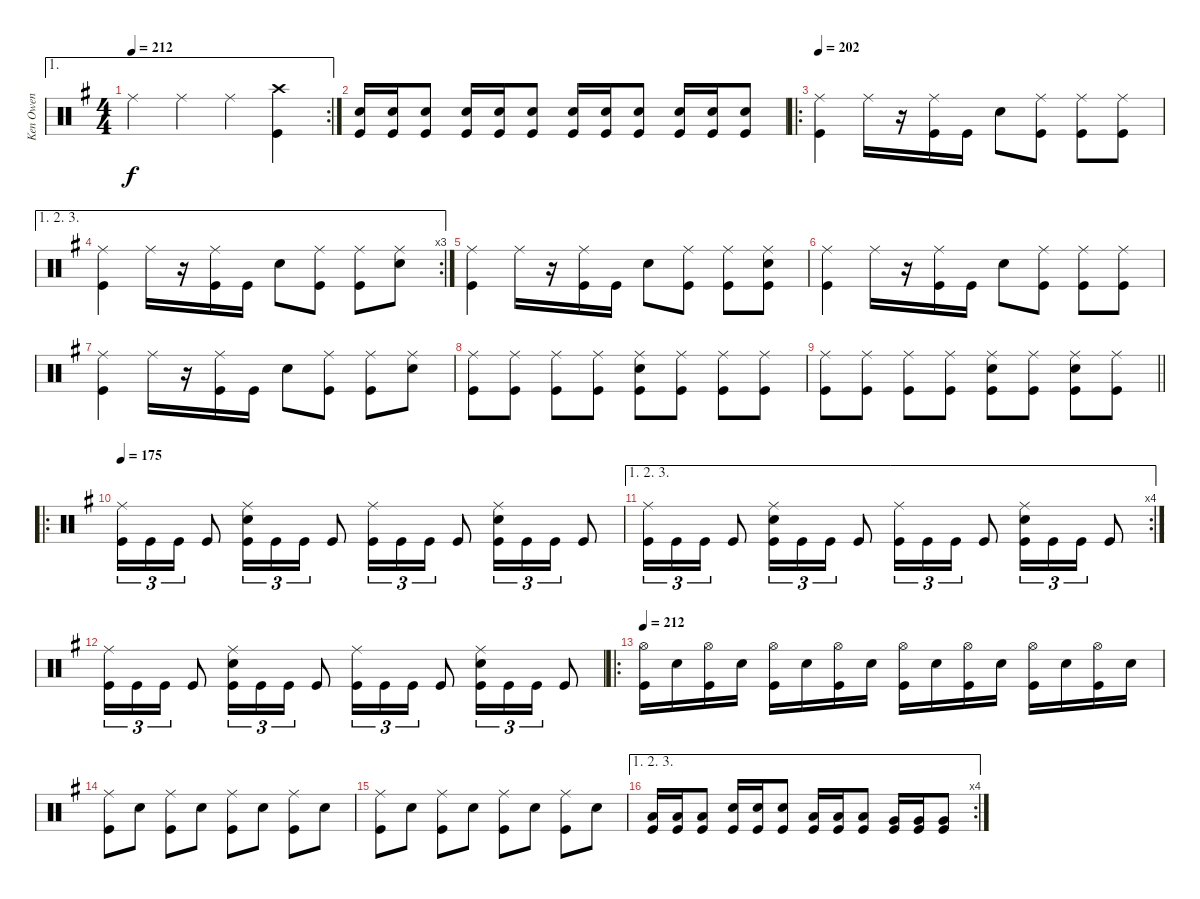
\track ("Ken Owen" "Ken Owen") {instrument percussion}
\staff {score}
\articulation defaults
\ae 1
\rc 2
\ts (4 4)
\tempo 212
\clef neutral
\ks g "Ride (middle)".4{dy f} "Ride (middle)".4 "Ride (middle)".4
("Crash high (hit)" "Kick (hit)").4 |
("Snare (hit) 2" "Kick (hit)").16 ("Snare (hit) 2" "Kick (hit)").16 ("Snare (hit) 2" "Kick (hit)").8 ("Snare (hit) 2" "Kick (hit)").16 ("Snare (hit) 2" "Kick (hit)").16 ("Snare (hit) 2" "Kick (hit)").8 ("Snare (hit) 2" "Kick (hit)").16 ("Snare (hit) 2" "Kick (hit)").16 ("Snare (hit) 2" "Kick (hit)").8 ("Snare (hit) 2" "Kick (hit)").16 ("Snare (hit) 2" "Kick (hit)").16 ("Snare (hit) 2" "Kick (hit)").8 |
\ro
\tempo 202
("Ride (middle)" "Kick (hit)").4 "Ride (middle)".16 r.16 ("Ride (middle)" "Kick (hit)").16 "Kick (hit)".16 "Snare (hit) 2".8 ("Ride (middle)" "Kick (hit)").8 ("Ride (middle)" "Kick (hit)").8 ("Ride (middle)" "Kick (hit)").8 |
\ae (1 2 3)
\rc 3
("Ride (middle)" "Kick (hit)").4 "Ride (middle)".16 r.16 ("Ride (middle)" "Kick (hit)").16 "Kick (hit)".16 "Snare (hit) 2".8 ("Ride (middle)" "Kick (hit)").8 ("Ride (middle)" "Kick (hit)").8 ("Ride (middle)" "Snare (hit) 2").8 |
("Ride (middle)" "Kick (hit)").4 "Ride (middle)".16 r.16 ("Ride (middle)" "Kick (hit)").16 "Kick (hit)".16 "Snare (hit) 2".8 ("Ride (middle)" "Kick (hit)").8 ("Ride (middle)" "Kick (hit)").8 ("Ride (middle)" "Snare (hit) 2" "Kick (hit)").8 |
("Ride (middle)" "Kick (hit)").4 "Ride (middle)".16 r.16 ("Ride (middle)" "Kick (hit)").16 "Kick (hit)".16 "Snare (hit) 2".8 ("Ride (middle)" "Kick (hit)").8 ("Ride (middle)" "Kick (hit)").8 ("Ride (middle)" "Kick (hit)").8 |
("Ride (middle)" "Kick (hit)").4 "Ride (middle)".16 r.16 ("Ride (middle)" "Kick (hit)").16 "Kick (hit)".16 "Snare (hit) 2".8 ("Ride (middle)" "Kick (hit)").8 ("Ride (middle)" "Kick (hit)").8 ("Ride (middle)" "Snare (hit) 2").8 |
("Ride (middle)" "Kick (hit)").8 ("Ride (middle)" "Kick (hit)").8 ("Ride (middle)" "Kick (hit)").8 ("Ride (middle)" "Kick (hit)").8 ("Ride (middle)" "Snare (hit) 2" "Kick (hit)").8 ("Ride (middle)" "Kick (hit)").8 ("Ride (middle)" "Kick (hit)").8 ("Ride (middle)" "Kick (hit)").8 |
\barLineRight lightlight
("Ride (middle)" "Kick (hit)").8 ("Ride (middle)" "Kick (hit)").8 ("Ride (middle)" "Kick (hit)").8 ("Ride (middle)" "Kick (hit)").8 ("Ride (middle)" "Snare (hit) 2" "Kick (hit)").8 ("Ride (middle)" "Kick (hit)").8 ("Ride (middle)" "Snare (hit) 2" "Kick (hit)").8 ("Ride (middle)" "Kick (hit)").8 |
\ro
\tempo 175
("Ride (middle)" "Kick (hit)").16{tu (3 2)} "Kick (hit)".16{tu (3 2)} "Kick (hit)".16{tu (3 2)} "Kick (hit)".8 ("Ride (middle)" "Snare (hit) 2" "Kick (hit)").16{tu (3 2)} "Kick (hit)".16{tu (3 2)} "Kick (hit)".16{tu (3 2)} "Kick (hit)".8 ("Ride (middle)" "Kick (hit)").16{tu (3 2)} "Kick (hit)".16{tu (3 2)} "Kick (hit)".16{tu (3 2)} "Kick (hit)".8 ("Ride (middle)" "Snare (hit) 2" "Kick (hit)").16{tu (3 2)} "Kick (hit)".16{tu (3 2)} "Kick (hit)".16{tu (3 2)} "Kick (hit)".8 |
\ae (1 2 3)
\rc 4
("Ride (middle)" "Kick (hit)").16{tu (3 2)} "Kick (hit)".16{tu (3 2)} "Kick (hit)".16{tu (3 2)} "Kick (hit)".8 ("Ride (middle)" "Snare (hit) 2" "Kick (hit)").16{tu (3 2)} "Kick (hit)".16{tu (3 2)} "Kick (hit)".16{tu (3 2)} "Kick (hit)".8 ("Ride (middle)" "Kick (hit)").16{tu (3 2)} "Kick (hit)".16{tu (3 2)} "Kick (hit)".16{tu (3 2)} "Kick (hit)".8 ("Ride (middle)" "Snare (hit) 2" "Kick (hit)").16{tu (3 2)} "Kick (hit)".16{tu (3 2)} "Kick (hit)".16{tu (3 2)} "Kick (hit)".8 |
("Ride (middle)" "Kick (hit)").16{tu (3 2)} "Kick (hit)".16{tu (3 2)} "Kick (hit)".16{tu (3 2)} "Kick (hit)".8 ("Ride (middle)" "Snare (hit) 2" "Kick (hit)").16{tu (3 2)} "Kick (hit)".16{tu (3 2)} "Kick (hit)".16{tu (3 2)} "Kick (hit)".8 ("Ride (middle)" "Kick (hit)").16{tu (3 2)} "Kick (hit)".16{tu (3 2)} "Kick (hit)".16{tu (3 2)} "Kick (hit)".8 ("Ride (middle)" "Snare (hit) 2" "Kick (hit)").16{tu (3 2)} "Kick (hit)".16{tu (3 2)} "Kick (hit)".16{tu (3 2)} "Kick (hit)".8 |
\ro
\tempo 212
("Hi-Hat (open)" "Kick (hit)").16 "Snare (hit) 2".16 ("Hi-Hat (open)" "Kick (hit)").16 "Snare (hit) 2".16 ("Hi-Hat (open)" "Kick (hit)").16 "Snare (hit) 2".16 ("Hi-Hat (open)" "Kick (hit)").16 "Snare (hit) 2".16 ("Hi-Hat (open)" "Kick (hit)").16 "Snare (hit) 2".16 ("Hi-Hat (open)" "Kick (hit)").16 "Snare (hit) 2".16 ("Hi-Hat (open)" "Kick (hit)").16 "Snare (hit) 2".16 ("Hi-Hat (open)" "Kick (hit)").16 "Snare (hit) 2".16 |
("Ride (middle)" "Kick (hit)").8 "Snare (hit) 2".8 ("Ride (middle)" "Kick (hit)").8 "Snare (hit) 2".8 ("Ride (middle)" "Kick (hit)").8 "Snare (hit) 2".8 ("Ride (middle)" "Kick (hit)").8 "Snare (hit) 2".8 |
("Ride (middle)" "Kick (hit)").8 "Snare (hit) 2".8 ("Ride (middle)" "Kick (hit)").8 "Snare (hit) 2".8 ("Ride (middle)" "Kick (hit)").8 "Snare (hit) 2".8 ("Ride (middle)" "Kick (hit)").8 "Snare (hit) 2".8 |
\ae (1 2 3)
\rc 4
("Low Tom (hit)" "Kick (hit)").16 ("Low Tom (hit)" "Kick (hit)").16 ("Low Tom (hit)" "Kick (hit)").8 ("Snare (hit) 2" "Kick (hit)").16 ("Snare (hit) 2" "Kick (hit)").16 ("Snare (hit) 2" "Kick (hit)").8 ("Low Tom (hit)" "Kick (hit)").16 ("Low Tom (hit)" "Kick (hit)").16 ("Low Tom (hit)" "Kick (hit)").8 ("Very Low Tom (hit)" "Kick (hit)").16 ("Very Low Tom (hit)" "Kick (hit)").16 ("Very Low Tom (hit)" "Kick (hit)").8
